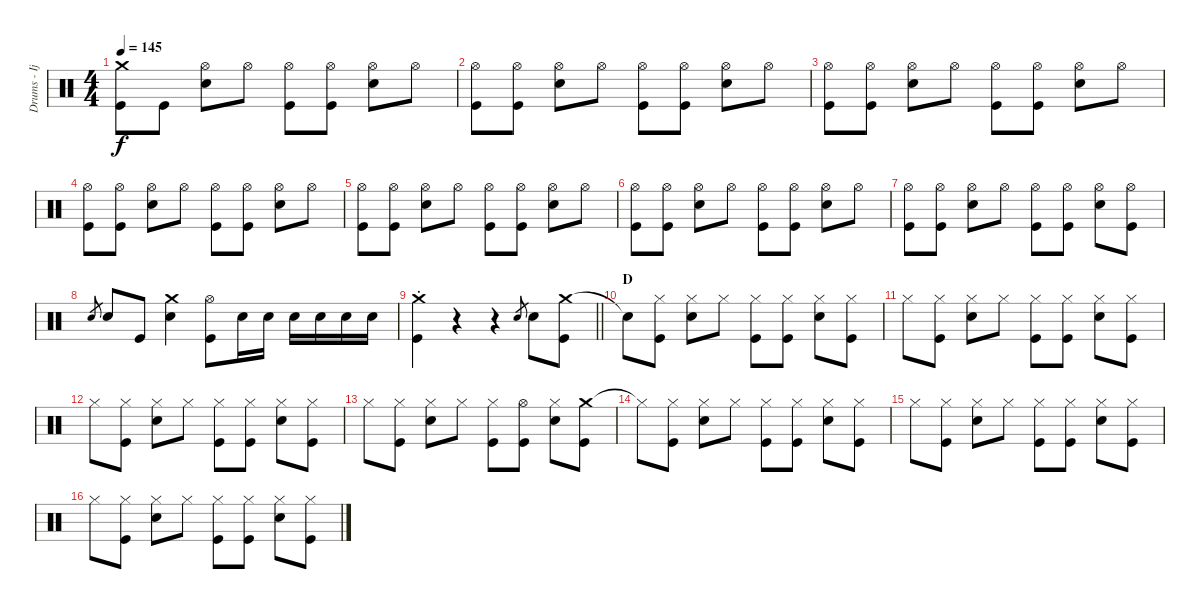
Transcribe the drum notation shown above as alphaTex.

\track ("Drums - Ijichi" "Drums - Ij") {instrument percussion}
\staff {score}
\articulation defaults
\ts (4 4)
\tempo 145
\clef neutral
\ks c
("Crash medium (hit)" "Kick (hit)").8{dy f} "Kick (hit)".8 ("Hi-Hat (open)" "Electric Snare (hit)").8 "Hi-Hat (open)".8 ("Hi-Hat (open)" "Kick (hit)").8 ("Hi-Hat (open)" "Kick (hit)").8 ("Hi-Hat (open)" "Electric Snare (hit)").8 "Hi-Hat (open)".8 |
("Hi-Hat (open)" "Kick (hit)").8 ("Hi-Hat (open)" "Kick (hit)").8 ("Hi-Hat (open)" "Electric Snare (hit)").8 "Hi-Hat (open)".8 ("Hi-Hat (open)" "Kick (hit)").8 ("Hi-Hat (open)" "Kick (hit)").8 ("Hi-Hat (open)" "Electric Snare (hit)").8 "Hi-Hat (open)".8 |
("Hi-Hat (open)" "Kick (hit)").8 ("Hi-Hat (open)" "Kick (hit)").8 ("Hi-Hat (open)" "Electric Snare (hit)").8 "Hi-Hat (open)".8 ("Hi-Hat (open)" "Kick (hit)").8 ("Hi-Hat (open)" "Kick (hit)").8 ("Hi-Hat (open)" "Electric Snare (hit)").8 "Hi-Hat (open)".8 |
("Hi-Hat (open)" "Kick (hit)").8 ("Hi-Hat (open)" "Kick (hit)").8 ("Hi-Hat (open)" "Electric Snare (hit)").8 "Hi-Hat (open)".8 ("Hi-Hat (open)" "Kick (hit)").8 ("Hi-Hat (open)" "Kick (hit)").8 ("Hi-Hat (open)" "Electric Snare (hit)").8 "Hi-Hat (open)".8 |
("Hi-Hat (open)" "Kick (hit)").8 ("Hi-Hat (open)" "Kick (hit)").8 ("Hi-Hat (open)" "Electric Snare (hit)").8 "Hi-Hat (open)".8 ("Hi-Hat (open)" "Kick (hit)").8 ("Hi-Hat (open)" "Kick (hit)").8 ("Hi-Hat (open)" "Electric Snare (hit)").8 "Hi-Hat (open)".8 |
("Hi-Hat (open)" "Kick (hit)").8 ("Hi-Hat (open)" "Kick (hit)").8 ("Hi-Hat (open)" "Electric Snare (hit)").8 "Hi-Hat (open)".8 ("Hi-Hat (open)" "Kick (hit)").8 ("Hi-Hat (open)" "Kick (hit)").8 ("Hi-Hat (open)" "Electric Snare (hit)").8 "Hi-Hat (open)".8 |
("Hi-Hat (open)" "Kick (hit)").8 ("Hi-Hat (open)" "Kick (hit)").8 ("Hi-Hat (open)" "Electric Snare (hit)").8 "Hi-Hat (open)".8 ("Hi-Hat (open)" "Kick (hit)").8 ("Hi-Hat (open)" "Kick (hit)").8 ("Hi-Hat (open)" "Electric Snare (hit)").8 ("Hi-Hat (open)" "Kick (hit)").8 |
"Electric Snare (hit)".8{gr} "Electric Snare (hit)".8 "Kick (hit)".8 ("Crash medium (hit)" "Electric Snare (hit)").4 ("Hi-Hat (open)" "Kick (hit)").8 "Electric Snare (hit)".16 "Electric Snare (hit)".16 "Electric Snare (hit)".16 "Electric Snare (hit)".16 "Electric Snare (hit)".16 "Electric Snare (hit)".16 |
\barLineRight lightlight
("Crash medium (hit)"{st} "Kick (hit)").4 r.4 r.4 "Electric Snare (hit)".8{gr} "Electric Snare (hit)".8 ("Crash medium (hit)" "Kick (hit)").8 |
\section ("" "D")
"Snare (hit)"{t}.8 ("Hi-Hat (closed)" "Kick (hit)").8 ("Hi-Hat (closed)" "Electric Snare (hit)").8 "Hi-Hat (closed)".8 ("Hi-Hat (closed)" "Kick (hit)").8 ("Hi-Hat (closed)" "Kick (hit)").8 ("Hi-Hat (closed)" "Electric Snare (hit)").8 ("Hi-Hat (closed)" "Kick (hit)").8 |
"Hi-Hat (closed)".8 ("Hi-Hat (closed)" "Kick (hit)").8 ("Hi-Hat (closed)" "Electric Snare (hit)").8 "Hi-Hat (closed)".8 ("Hi-Hat (closed)" "Kick (hit)").8 ("Hi-Hat (closed)" "Kick (hit)").8 ("Hi-Hat (closed)" "Electric Snare (hit)").8 ("Hi-Hat (closed)" "Kick (hit)").8 |
"Hi-Hat (closed)".8 ("Hi-Hat (closed)" "Kick (hit)").8 ("Hi-Hat (closed)" "Electric Snare (hit)").8 "Hi-Hat (closed)".8 ("Hi-Hat (closed)" "Kick (hit)").8 ("Hi-Hat (closed)" "Kick (hit)").8 ("Hi-Hat (closed)" "Electric Snare (hit)").8 ("Hi-Hat (closed)" "Kick (hit)").8 |
"Hi-Hat (closed)".8 ("Hi-Hat (closed)" "Kick (hit)").8 ("Hi-Hat (closed)" "Electric Snare (hit)").8 "Hi-Hat (closed)".8 ("Hi-Hat (closed)" "Kick (hit)").8 ("Hi-Hat (open)" "Kick (hit)").8 ("Hi-Hat (closed)" "Electric Snare (hit)").8 ("Crash medium (hit)" "Kick (hit)").8 |
"Hi-Hat (closed)"{t}.8 ("Hi-Hat (closed)" "Kick (hit)").8 ("Hi-Hat (closed)" "Electric Snare (hit)").8 "Hi-Hat (closed)".8 ("Hi-Hat (closed)" "Kick (hit)").8 ("Hi-Hat (closed)" "Kick (hit)").8 ("Hi-Hat (closed)" "Electric Snare (hit)").8 ("Hi-Hat (closed)" "Kick (hit)").8 |
"Hi-Hat (closed)".8 ("Hi-Hat (closed)" "Kick (hit)").8 ("Hi-Hat (closed)" "Electric Snare (hit)").8 "Hi-Hat (closed)".8 ("Hi-Hat (closed)" "Kick (hit)").8 ("Hi-Hat (closed)" "Kick (hit)").8 ("Hi-Hat (closed)" "Electric Snare (hit)").8 ("Hi-Hat (closed)" "Kick (hit)").8 |
"Hi-Hat (closed)".8 ("Hi-Hat (closed)" "Kick (hit)").8 ("Hi-Hat (closed)" "Electric Snare (hit)").8 "Hi-Hat (closed)".8 ("Hi-Hat (closed)" "Kick (hit)").8 ("Hi-Hat (closed)" "Kick (hit)").8 ("Hi-Hat (closed)" "Electric Snare (hit)").8 ("Hi-Hat (closed)" "Kick (hit)").8
